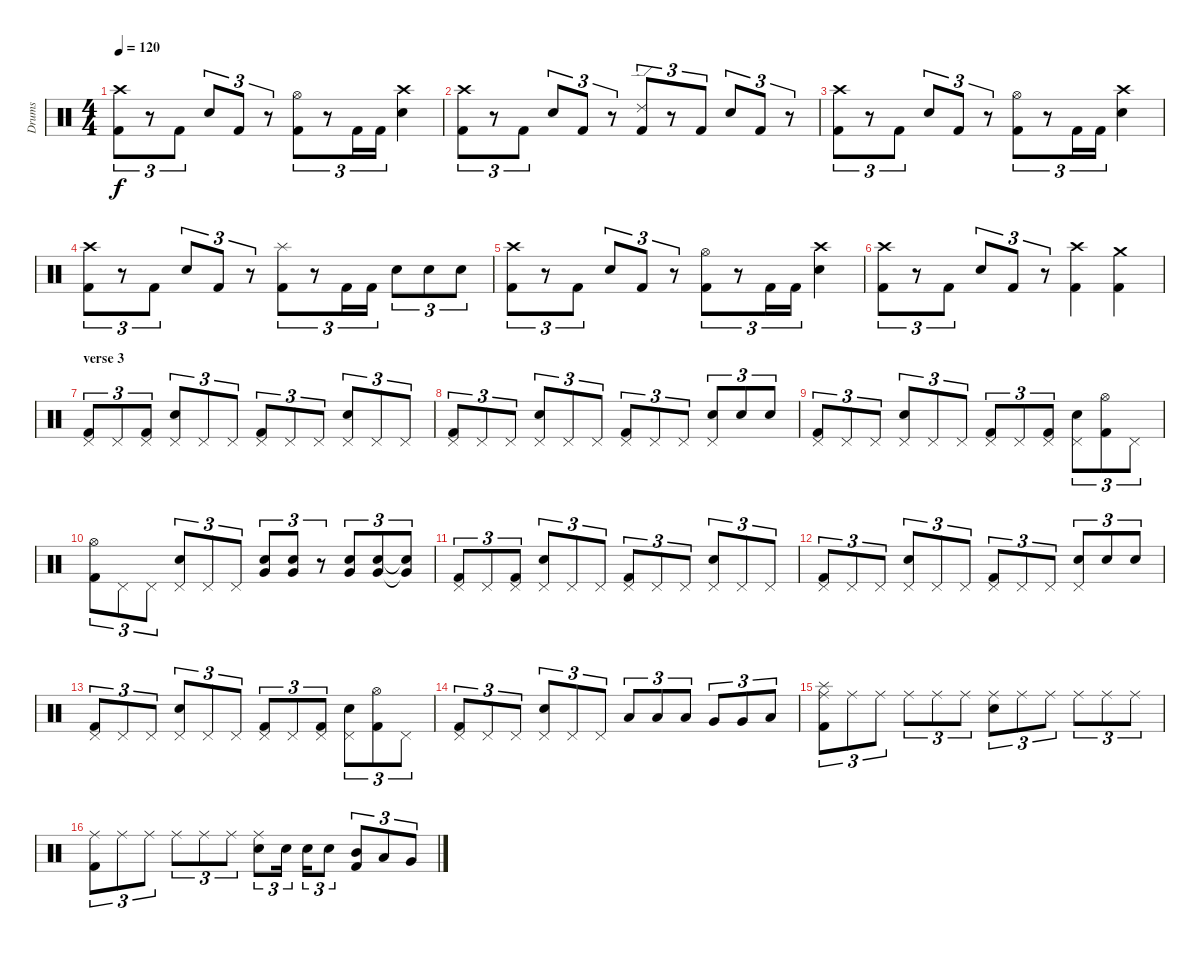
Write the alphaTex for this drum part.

\track ("Drums" "Drums") {instrument percussion}
\staff {score}
\articulation defaults
\ts (4 4)
\tempo 120
\clef neutral
\ks c
("Crash high (hit)" "Kick (hit) 2").8{tu (3 2) dy f} r.8{tu (3 2)} "Kick (hit) 2".8{tu (3 2)} "Snare (hit) 2".8{tu (3 2)} "Kick (hit) 2".8{tu (3 2)} r.8{tu (3 2)} ("Hi-Hat (open)" "Kick (hit) 2").8{tu (3 2)} r.8{tu (3 2)} "Kick (hit) 2".16{tu (3 2)} "Kick (hit) 2".16{tu (3 2)} ("Crash high (hit)" "Snare (hit) 2").4 |
("Crash high (hit)" "Kick (hit) 2").8{tu (3 2)} r.8{tu (3 2)} "Kick (hit) 2".8{tu (3 2)} "Snare (hit) 2".8{tu (3 2)} "Kick (hit) 2".8{tu (3 2)} r.8{tu (3 2)} ("Ride (edge) 2" "Kick (hit) 2").8{tu (3 2)} r.8{tu (3 2)} "Kick (hit) 2".8{tu (3 2)} "Snare (hit) 2".8{tu (3 2)} "Kick (hit) 2".8{tu (3 2)} r.8{tu (3 2)} |
("Crash high (hit)" "Kick (hit) 2").8{tu (3 2)} r.8{tu (3 2)} "Kick (hit) 2".8{tu (3 2)} "Snare (hit) 2".8{tu (3 2)} "Kick (hit) 2".8{tu (3 2)} r.8{tu (3 2)} ("Hi-Hat (open)" "Kick (hit) 2").8{tu (3 2)} r.8{tu (3 2)} "Kick (hit) 2".16{tu (3 2)} "Kick (hit) 2".16{tu (3 2)} ("Crash high (hit)" "Snare (hit) 2").4 |
("Crash high (hit)" "Kick (hit) 2").8{tu (3 2)} r.8{tu (3 2)} "Kick (hit) 2".8{tu (3 2)} "Snare (hit) 2".8{tu (3 2)} "Kick (hit) 2".8{tu (3 2)} r.8{tu (3 2)} ("Splash (hit)" "Kick (hit) 2").8{tu (3 2)} r.8{tu (3 2)} "Kick (hit) 2".16{tu (3 2)} "Kick (hit) 2".16{tu (3 2)} "Snare (hit) 2".8{tu (3 2)} "Snare (hit) 2".8{tu (3 2)} "Snare (hit) 2".8{tu (3 2)} |
("Crash high (hit)" "Kick (hit) 2").8{tu (3 2)} r.8{tu (3 2)} "Kick (hit) 2".8{tu (3 2)} "Snare (hit) 2".8{tu (3 2)} "Kick (hit) 2".8{tu (3 2)} r.8{tu (3 2)} ("Hi-Hat (open)" "Kick (hit) 2").8{tu (3 2)} r.8{tu (3 2)} "Kick (hit) 2".16{tu (3 2)} "Kick (hit) 2".16{tu (3 2)} ("Crash high (hit)" "Snare (hit) 2").4 |
("Crash high (hit)" "Kick (hit) 2").8{tu (3 2)} r.8{tu (3 2)} "Kick (hit) 2".8{tu (3 2)} "Snare (hit) 2".8{tu (3 2)} "Kick (hit) 2".8{tu (3 2)} r.8{tu (3 2)} ("Crash high (hit)" "Kick (hit) 2").4 ("Crash medium (hit)" "Kick (hit) 2").4 |
\section ("" "verse 3")
("Pedal Hi-Hat (hit)" "Kick (hit) 2").8{tu (3 2)} "Pedal Hi-Hat (hit)".8{tu (3 2)} ("Pedal Hi-Hat (hit)" "Kick (hit) 2").8{tu (3 2)} ("Pedal Hi-Hat (hit)" "Snare (hit) 2").8{tu (3 2)} "Pedal Hi-Hat (hit)".8{tu (3 2)} "Pedal Hi-Hat (hit)".8{tu (3 2)} ("Pedal Hi-Hat (hit)" "Kick (hit) 2").8{tu (3 2)} "Pedal Hi-Hat (hit)".8{tu (3 2)} "Pedal Hi-Hat (hit)".8{tu (3 2)} ("Pedal Hi-Hat (hit)" "Snare (hit) 2").8{tu (3 2)} "Pedal Hi-Hat (hit)".8{tu (3 2)} "Pedal Hi-Hat (hit)".8{tu (3 2)} |
("Pedal Hi-Hat (hit)" "Kick (hit) 2").8{tu (3 2)} "Pedal Hi-Hat (hit)".8{tu (3 2)} "Pedal Hi-Hat (hit)".8{tu (3 2)} ("Pedal Hi-Hat (hit)" "Snare (hit) 2").8{tu (3 2)} "Pedal Hi-Hat (hit)".8{tu (3 2)} "Pedal Hi-Hat (hit)".8{tu (3 2)} ("Pedal Hi-Hat (hit)" "Kick (hit) 2").8{tu (3 2)} "Pedal Hi-Hat (hit)".8{tu (3 2)} "Pedal Hi-Hat (hit)".8{tu (3 2)} ("Pedal Hi-Hat (hit)" "Snare (hit) 2").8{tu (3 2)} "Snare (hit) 2".8{tu (3 2)} "Snare (hit) 2".8{tu (3 2)} |
("Pedal Hi-Hat (hit)" "Kick (hit) 2").8{tu (3 2)} "Pedal Hi-Hat (hit)".8{tu (3 2)} "Pedal Hi-Hat (hit)".8{tu (3 2)} ("Pedal Hi-Hat (hit)" "Snare (hit) 2").8{tu (3 2)} "Pedal Hi-Hat (hit)".8{tu (3 2)} "Pedal Hi-Hat (hit)".8{tu (3 2)} ("Pedal Hi-Hat (hit)" "Kick (hit) 2").8{tu (3 2)} "Pedal Hi-Hat (hit)".8{tu (3 2)} ("Pedal Hi-Hat (hit)" "Kick (hit) 2").8{tu (3 2)} ("Pedal Hi-Hat (hit)" "Snare (hit) 2").8{tu (3 2)} ("Hi-Hat (open)" "Kick (hit) 2").8{tu (3 2)} "Pedal Hi-Hat (hit)".8{tu (3 2)} |
("Hi-Hat (open)" "Kick (hit) 2").8{tu (3 2)} "Pedal Hi-Hat (hit)".8{tu (3 2)} "Pedal Hi-Hat (hit)".8{tu (3 2)} ("Pedal Hi-Hat (hit)" "Snare (hit) 2").8{tu (3 2)} "Pedal Hi-Hat (hit)".8{tu (3 2)} "Pedal Hi-Hat (hit)".8{tu (3 2)} ("Very Low Tom (hit)" "Snare (hit) 2").8{tu (3 2)} ("Very Low Tom (hit)" "Snare (hit) 2").8{tu (3 2)} r.8{tu (3 2)} ("Very Low Tom (hit)" "Snare (hit) 2").8{tu (3 2)} ("Very Low Tom (hit)" "Snare (hit) 2").8{tu (3 2)} ("Very Low Tom (hit)"{t} "Snare (hit) 2"{t}).8{tu (3 2)} |
("Pedal Hi-Hat (hit)" "Kick (hit) 2").8{tu (3 2)} "Pedal Hi-Hat (hit)".8{tu (3 2)} ("Pedal Hi-Hat (hit)" "Kick (hit) 2").8{tu (3 2)} ("Pedal Hi-Hat (hit)" "Snare (hit) 2").8{tu (3 2)} "Pedal Hi-Hat (hit)".8{tu (3 2)} "Pedal Hi-Hat (hit)".8{tu (3 2)} ("Pedal Hi-Hat (hit)" "Kick (hit) 2").8{tu (3 2)} "Pedal Hi-Hat (hit)".8{tu (3 2)} "Pedal Hi-Hat (hit)".8{tu (3 2)} ("Pedal Hi-Hat (hit)" "Snare (hit) 2").8{tu (3 2)} "Pedal Hi-Hat (hit)".8{tu (3 2)} "Pedal Hi-Hat (hit)".8{tu (3 2)} |
("Pedal Hi-Hat (hit)" "Kick (hit) 2").8{tu (3 2)} "Pedal Hi-Hat (hit)".8{tu (3 2)} "Pedal Hi-Hat (hit)".8{tu (3 2)} ("Pedal Hi-Hat (hit)" "Snare (hit) 2").8{tu (3 2)} "Pedal Hi-Hat (hit)".8{tu (3 2)} "Pedal Hi-Hat (hit)".8{tu (3 2)} ("Pedal Hi-Hat (hit)" "Kick (hit) 2").8{tu (3 2)} "Pedal Hi-Hat (hit)".8{tu (3 2)} "Pedal Hi-Hat (hit)".8{tu (3 2)} ("Pedal Hi-Hat (hit)" "Snare (hit) 2").8{tu (3 2)} "Snare (hit) 2".8{tu (3 2)} "Snare (hit) 2".8{tu (3 2)} |
("Pedal Hi-Hat (hit)" "Kick (hit) 2").8{tu (3 2)} "Pedal Hi-Hat (hit)".8{tu (3 2)} "Pedal Hi-Hat (hit)".8{tu (3 2)} ("Pedal Hi-Hat (hit)" "Snare (hit) 2").8{tu (3 2)} "Pedal Hi-Hat (hit)".8{tu (3 2)} "Pedal Hi-Hat (hit)".8{tu (3 2)} ("Pedal Hi-Hat (hit)" "Kick (hit) 2").8{tu (3 2)} "Pedal Hi-Hat (hit)".8{tu (3 2)} ("Pedal Hi-Hat (hit)" "Kick (hit) 2").8{tu (3 2)} ("Pedal Hi-Hat (hit)" "Snare (hit) 2").8{tu (3 2)} ("Hi-Hat (open)" "Kick (hit) 2").8{tu (3 2)} "Pedal Hi-Hat (hit)".8{tu (3 2)} |
("Pedal Hi-Hat (hit)" "Kick (hit) 2").8{tu (3 2)} "Pedal Hi-Hat (hit)".8{tu (3 2)} "Pedal Hi-Hat (hit)".8{tu (3 2)} ("Pedal Hi-Hat (hit)" "Snare (hit) 2").8{tu (3 2)} "Pedal Hi-Hat (hit)".8{tu (3 2)} "Pedal Hi-Hat (hit)".8{tu (3 2)} "Low Tom (hit)".8{tu (3 2)} "Low Tom (hit)".8{tu (3 2)} "Low Tom (hit)".8{tu (3 2)} "Very Low Tom (hit)".8{tu (3 2)} "Very Low Tom (hit)".8{tu (3 2)} "Low Floor Tom (hit)".8{tu (3 2)} |
("Ride (middle)" "Splash (hit)" "Kick (hit) 2").8{tu (3 2)} "Ride (middle)".8{tu (3 2)} "Ride (middle)".8{tu (3 2)} "Ride (middle)".8{tu (3 2)} "Ride (middle)".8{tu (3 2)} "Ride (middle)".8{tu (3 2)} ("Ride (middle)" "Snare (hit) 2").8{tu (3 2)} "Ride (middle)".8{tu (3 2)} "Ride (middle)".8{tu (3 2)} "Ride (middle)".8{tu (3 2)} "Ride (middle)".8{tu (3 2)} "Ride (middle)".8{tu (3 2)} |
("Ride (middle)" "Kick (hit) 2").8{tu (3 2)} "Ride (middle)".8{tu (3 2)} "Ride (middle)".8{tu (3 2)} "Ride (middle)".8{tu (3 2)} "Ride (middle)".8{tu (3 2)} "Ride (middle)".8{tu (3 2)} ("Ride (middle)" "Snare (hit) 2").8{tu (3 2)} "Snare (hit) 2".16{tu (3 2)} "Snare (hit) 2".16{tu (3 2)} "Snare (hit) 2".8{tu (3 2)} ("Mid Tom (hit)" "Kick (hit) 2").8{tu (3 2)} "Low Tom (hit)".8{tu (3 2)} "Very Low Tom (hit)".8{tu (3 2)}
